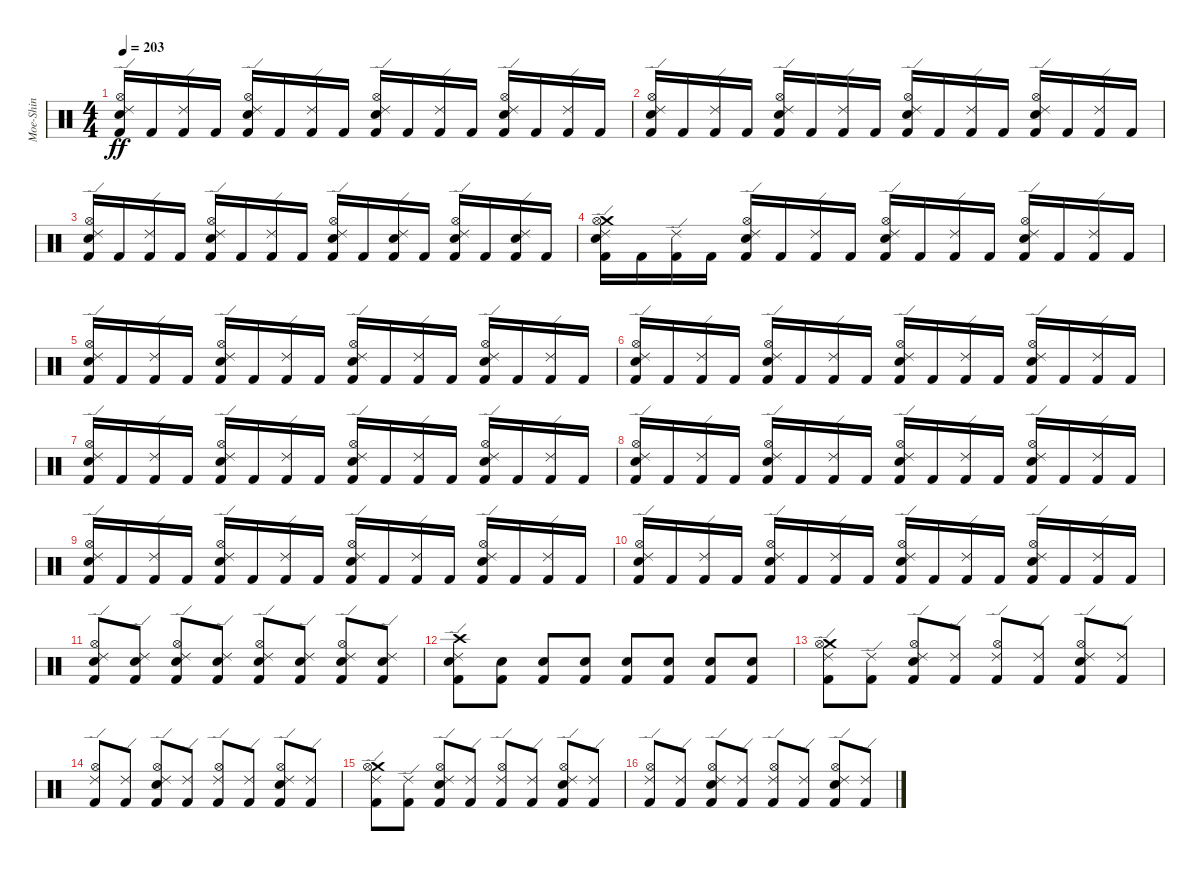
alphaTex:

\track ("Moe-Shin" "Moe-Shin") {instrument percussion}
\staff {score}
\articulation defaults
\ts (4 4)
\tempo 203
\clef neutral
\ks c
("Kick (hit) 2" "Hi-Hat (open)" "Ride (edge) 2" "Snare (hit) 2").16{dy ff} "Kick (hit) 2".16 ("Ride (edge) 2" "Kick (hit) 2").16 "Kick (hit) 2".16 ("Hi-Hat (open)" "Kick (hit) 2" "Snare (hit) 2" "Ride (edge) 2").16 "Kick (hit) 2".16 ("Kick (hit) 2" "Ride (edge) 2").16 "Kick (hit) 2".16 ("Ride (edge) 2" "Kick (hit) 2" "Snare (hit) 2" "Hi-Hat (open)").16 "Kick (hit) 2".16 ("Ride (edge) 2" "Kick (hit) 2").16 "Kick (hit) 2".16 ("Ride (edge) 2" "Hi-Hat (open)" "Snare (hit) 2" "Kick (hit) 2").16 "Kick (hit) 2".16 ("Kick (hit) 2" "Ride (edge) 2").16 "Kick (hit) 2".16 |
("Ride (edge) 2" "Hi-Hat (open)" "Kick (hit) 2" "Snare (hit) 2").16 "Kick (hit) 2".16 ("Kick (hit) 2" "Ride (edge) 2").16 "Kick (hit) 2".16 ("Ride (edge) 2" "Hi-Hat (open)" "Kick (hit) 2" "Snare (hit) 2").16 "Kick (hit) 2".16 ("Kick (hit) 2" "Ride (edge) 2").16 "Kick (hit) 2".16 ("Hi-Hat (open)" "Snare (hit) 2" "Ride (edge) 2" "Kick (hit) 2").16 "Kick (hit) 2".16 ("Kick (hit) 2" "Ride (edge) 2").16 "Kick (hit) 2".16 ("Kick (hit) 2" "Hi-Hat (open)" "Snare (hit) 2" "Ride (edge) 2").16 "Kick (hit) 2".16 ("Ride (edge) 2" "Kick (hit) 2").16 "Kick (hit) 2".16 |
("Hi-Hat (open)" "Kick (hit) 2" "Ride (edge) 2" "Snare (hit) 2").16 "Kick (hit) 2".16 ("Kick (hit) 2" "Ride (edge) 2").16 "Kick (hit) 2".16 ("Hi-Hat (open)" "Snare (hit) 2" "Kick (hit) 2" "Ride (edge) 2").16 "Kick (hit) 2".16 ("Ride (edge) 2" "Kick (hit) 2").16 "Kick (hit) 2".16 ("Hi-Hat (open)" "Ride (edge) 2" "Snare (hit) 2" "Kick (hit) 2").16 "Kick (hit) 2".16 ("Ride (edge) 2" "Snare (hit) 2" "Kick (hit) 2").16 "Kick (hit) 2".16 ("Hi-Hat (open)" "Ride (edge) 2" "Kick (hit) 2" "Snare (hit) 2").16 "Kick (hit) 2".16 ("Snare (hit) 2" "Kick (hit) 2" "Ride (edge) 2").16 "Kick (hit) 2".16 |
("Crash medium (hit)" "Hi-Hat (open)" "Ride (edge) 2" "Kick (hit) 2" "Snare (hit) 2").16 "Kick (hit) 2".16 ("Kick (hit) 2" "Ride (edge) 2").16 "Kick (hit) 2".16 ("Snare (hit) 2" "Kick (hit) 2" "Hi-Hat (open)" "Ride (edge) 2").16 "Kick (hit) 2".16 ("Kick (hit) 2" "Ride (edge) 2").16 "Kick (hit) 2".16 ("Kick (hit) 2" "Snare (hit) 2" "Hi-Hat (open)" "Ride (edge) 2").16 "Kick (hit) 2".16 ("Kick (hit) 2" "Ride (edge) 2").16 "Kick (hit) 2".16 ("Ride (edge) 2" "Hi-Hat (open)" "Kick (hit) 2" "Snare (hit) 2").16 "Kick (hit) 2".16 ("Kick (hit) 2" "Ride (edge) 2").16 "Kick (hit) 2".16 |
("Snare (hit) 2" "Hi-Hat (open)" "Ride (edge) 2" "Kick (hit) 2").16 "Kick (hit) 2".16 ("Ride (edge) 2" "Kick (hit) 2").16 "Kick (hit) 2".16 ("Kick (hit) 2" "Hi-Hat (open)" "Snare (hit) 2" "Ride (edge) 2").16 "Kick (hit) 2".16 ("Ride (edge) 2" "Kick (hit) 2").16 "Kick (hit) 2".16 ("Kick (hit) 2" "Snare (hit) 2" "Ride (edge) 2" "Hi-Hat (open)").16 "Kick (hit) 2".16 ("Kick (hit) 2" "Ride (edge) 2").16 "Kick (hit) 2".16 ("Kick (hit) 2" "Hi-Hat (open)" "Snare (hit) 2" "Ride (edge) 2").16 "Kick (hit) 2".16 ("Ride (edge) 2" "Kick (hit) 2").16 "Kick (hit) 2".16 |
("Hi-Hat (open)" "Kick (hit) 2" "Ride (edge) 2" "Snare (hit) 2").16 "Kick (hit) 2".16 ("Ride (edge) 2" "Kick (hit) 2").16 "Kick (hit) 2".16 ("Hi-Hat (open)" "Kick (hit) 2" "Snare (hit) 2" "Ride (edge) 2").16 "Kick (hit) 2".16 ("Kick (hit) 2" "Ride (edge) 2").16 "Kick (hit) 2".16 ("Snare (hit) 2" "Hi-Hat (open)" "Kick (hit) 2" "Ride (edge) 2").16 "Kick (hit) 2".16 ("Kick (hit) 2" "Ride (edge) 2").16 "Kick (hit) 2".16 ("Hi-Hat (open)" "Ride (edge) 2" "Kick (hit) 2" "Snare (hit) 2").16 "Kick (hit) 2".16 ("Kick (hit) 2" "Ride (edge) 2").16 "Kick (hit) 2".16 |
("Kick (hit) 2" "Ride (edge) 2" "Hi-Hat (open)" "Snare (hit) 2").16 "Kick (hit) 2".16 ("Kick (hit) 2" "Ride (edge) 2").16 "Kick (hit) 2".16 ("Hi-Hat (open)" "Snare (hit) 2" "Kick (hit) 2" "Ride (edge) 2").16 "Kick (hit) 2".16 ("Kick (hit) 2" "Ride (edge) 2").16 "Kick (hit) 2".16 ("Hi-Hat (open)" "Snare (hit) 2" "Ride (edge) 2" "Kick (hit) 2").16 "Kick (hit) 2".16 ("Kick (hit) 2" "Ride (edge) 2").16 "Kick (hit) 2".16 ("Snare (hit) 2" "Hi-Hat (open)" "Kick (hit) 2" "Ride (edge) 2").16 "Kick (hit) 2".16 ("Kick (hit) 2" "Ride (edge) 2").16 "Kick (hit) 2".16 |
("Kick (hit) 2" "Snare (hit) 2" "Hi-Hat (open)" "Ride (edge) 2").16 "Kick (hit) 2".16 ("Ride (edge) 2" "Kick (hit) 2").16 "Kick (hit) 2".16 ("Snare (hit) 2" "Kick (hit) 2" "Hi-Hat (open)" "Ride (edge) 2").16 "Kick (hit) 2".16 ("Ride (edge) 2" "Kick (hit) 2").16 "Kick (hit) 2".16 ("Kick (hit) 2" "Ride (edge) 2" "Snare (hit) 2" "Hi-Hat (open)").16 "Kick (hit) 2".16 ("Ride (edge) 2" "Kick (hit) 2").16 "Kick (hit) 2".16 ("Kick (hit) 2" "Snare (hit) 2" "Hi-Hat (open)" "Ride (edge) 2").16 "Kick (hit) 2".16 ("Ride (edge) 2" "Kick (hit) 2").16 "Kick (hit) 2".16 |
("Ride (edge) 2" "Kick (hit) 2" "Hi-Hat (open)" "Snare (hit) 2").16 "Kick (hit) 2".16 ("Kick (hit) 2" "Ride (edge) 2").16 "Kick (hit) 2".16 ("Snare (hit) 2" "Kick (hit) 2" "Hi-Hat (open)" "Ride (edge) 2").16 "Kick (hit) 2".16 ("Ride (edge) 2" "Kick (hit) 2").16 "Kick (hit) 2".16 ("Kick (hit) 2" "Ride (edge) 2" "Snare (hit) 2" "Hi-Hat (open)").16 "Kick (hit) 2".16 ("Kick (hit) 2" "Ride (edge) 2").16 "Kick (hit) 2".16 ("Hi-Hat (open)" "Snare (hit) 2" "Ride (edge) 2" "Kick (hit) 2").16 "Kick (hit) 2".16 ("Kick (hit) 2" "Ride (edge) 2").16 "Kick (hit) 2".16 |
("Kick (hit) 2" "Snare (hit) 2" "Hi-Hat (open)" "Ride (edge) 2").16 "Kick (hit) 2".16 ("Ride (edge) 2" "Kick (hit) 2").16 "Kick (hit) 2".16 ("Snare (hit) 2" "Ride (edge) 2" "Hi-Hat (open)" "Kick (hit) 2").16 "Kick (hit) 2".16 ("Kick (hit) 2" "Ride (edge) 2").16 "Kick (hit) 2".16 ("Ride (edge) 2" "Hi-Hat (open)" "Kick (hit) 2" "Snare (hit) 2").16 "Kick (hit) 2".16 ("Ride (edge) 2" "Kick (hit) 2").16 "Kick (hit) 2".16 ("Ride (edge) 2" "Kick (hit) 2" "Snare (hit) 2" "Hi-Hat (open)").16 "Kick (hit) 2".16 ("Ride (edge) 2" "Kick (hit) 2").16 "Kick (hit) 2".16 |
("Kick (hit) 2" "Snare (hit) 2" "Ride (edge) 2" "Hi-Hat (open)").8 ("Snare (hit) 2" "Ride (edge) 2" "Kick (hit) 2").8 ("Ride (edge) 2" "Kick (hit) 2" "Snare (hit) 2" "Hi-Hat (open)").8 ("Snare (hit) 2" "Ride (edge) 2" "Kick (hit) 2").8 ("Kick (hit) 2" "Snare (hit) 2" "Ride (edge) 2" "Hi-Hat (open)").8 ("Kick (hit) 2" "Snare (hit) 2" "Ride (edge) 2").8 ("Kick (hit) 2" "Ride (edge) 2" "Hi-Hat (open)" "Snare (hit) 2").8 ("Ride (edge) 2" "Kick (hit) 2" "Snare (hit) 2").8 |
("Snare (hit) 2" "Ride (edge) 2" "Crash high (hit)" "Kick (hit) 2").8 ("Snare (hit) 2" "Kick (hit) 2").8 ("Snare (hit) 2" "Kick (hit) 2").8 ("Kick (hit) 2" "Snare (hit) 2").8 ("Snare (hit) 2" "Kick (hit) 2").8 ("Snare (hit) 2" "Kick (hit) 2").8 ("Snare (hit) 2" "Kick (hit) 2").8 ("Kick (hit) 2" "Snare (hit) 2").8 |
("Ride (edge) 2" "Crash medium (hit)" "Hi-Hat (open)" "Kick (hit) 2").8 ("Kick (hit) 2" "Ride (edge) 2").8 ("Kick (hit) 2" "Snare (hit) 2" "Hi-Hat (open)" "Ride (edge) 2").8 ("Kick (hit) 2" "Ride (edge) 2").8 ("Hi-Hat (open)" "Kick (hit) 2" "Ride (edge) 2").8 ("Ride (edge) 2" "Kick (hit) 2").8 ("Snare (hit) 2" "Kick (hit) 2" "Ride (edge) 2" "Hi-Hat (open)").8 ("Ride (edge) 2" "Kick (hit) 2").8 |
("Kick (hit) 2" "Ride (edge) 2" "Hi-Hat (open)").8 ("Kick (hit) 2" "Ride (edge) 2").8 ("Snare (hit) 2" "Hi-Hat (open)" "Ride (edge) 2" "Kick (hit) 2").8 ("Ride (edge) 2" "Kick (hit) 2").8 ("Kick (hit) 2" "Hi-Hat (open)" "Ride (edge) 2").8 ("Ride (edge) 2" "Kick (hit) 2").8 ("Snare (hit) 2" "Ride (edge) 2" "Kick (hit) 2" "Hi-Hat (open)").8 ("Kick (hit) 2" "Ride (edge) 2").8 |
("Crash medium (hit)" "Ride (edge) 2" "Hi-Hat (open)" "Kick (hit) 2").8 ("Ride (edge) 2" "Kick (hit) 2").8 ("Ride (edge) 2" "Hi-Hat (open)" "Kick (hit) 2" "Snare (hit) 2").8 ("Kick (hit) 2" "Ride (edge) 2").8 ("Ride (edge) 2" "Hi-Hat (open)" "Kick (hit) 2").8 ("Ride (edge) 2" "Kick (hit) 2").8 ("Snare (hit) 2" "Kick (hit) 2" "Hi-Hat (open)" "Ride (edge) 2").8 ("Kick (hit) 2" "Ride (edge) 2").8 |
("Ride (edge) 2" "Kick (hit) 2" "Hi-Hat (open)").8 ("Kick (hit) 2" "Ride (edge) 2").8 ("Ride (edge) 2" "Snare (hit) 2" "Kick (hit) 2" "Hi-Hat (open)").8 ("Kick (hit) 2" "Ride (edge) 2").8 ("Ride (edge) 2" "Hi-Hat (open)" "Kick (hit) 2").8 ("Kick (hit) 2" "Ride (edge) 2").8 ("Kick (hit) 2" "Ride (edge) 2" "Hi-Hat (open)" "Snare (hit) 2").8 ("Kick (hit) 2" "Ride (edge) 2").8
